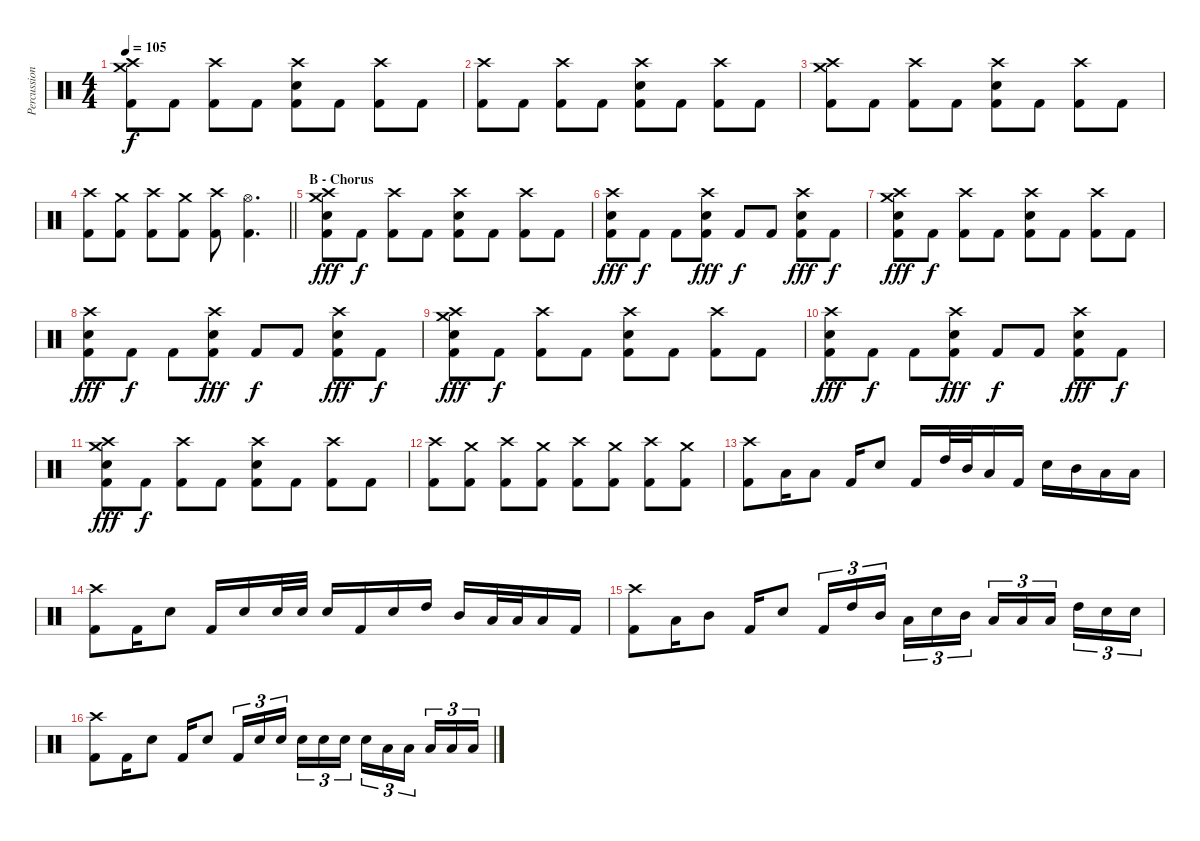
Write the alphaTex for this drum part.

\track ("Percussions" "Percussion") {instrument percussion}
\staff {score}
\articulation defaults
\ts (4 4)
\tempo 105
\clef neutral
\ks c
("Crash medium (hit)" "Crash high (hit)" "Kick (hit) 2").8{dy f} "Kick (hit) 2".8 ("Crash high (hit)" "Kick (hit) 2").8 "Kick (hit) 2".8 ("Crash high (hit)" "Snare (hit) 2" "Kick (hit) 2").8 "Kick (hit) 2".8 ("Crash high (hit)" "Kick (hit) 2").8 "Kick (hit) 2".8 |
("Crash high (hit)" "Kick (hit) 2").8 "Kick (hit) 2".8 ("Crash high (hit)" "Kick (hit) 2").8 "Kick (hit) 2".8 ("Crash high (hit)" "Snare (hit) 2" "Kick (hit) 2").8 "Kick (hit) 2".8 ("Crash high (hit)" "Kick (hit) 2").8 "Kick (hit) 2".8 |
("Crash medium (hit)" "Crash high (hit)" "Kick (hit) 2").8 "Kick (hit) 2".8 ("Crash high (hit)" "Kick (hit) 2").8 "Kick (hit) 2".8 ("Crash high (hit)" "Snare (hit) 2" "Kick (hit) 2").8 "Kick (hit) 2".8 ("Crash high (hit)" "Kick (hit) 2").8 "Kick (hit) 2".8 |
\barLineRight lightlight
("Crash high (hit)" "Kick (hit) 2").8 ("Crash medium (hit)" "Kick (hit) 2").8 ("Crash high (hit)" "Kick (hit) 2").8 ("Crash medium (hit)" "Kick (hit) 2").8 ("Crash high (hit)" "Kick (hit) 2").8 ("Hi-Hat (open)" "Kick (hit) 2").4{d} |
\section ("" "B - Chorus")
("Crash medium (hit)" "Crash high (hit)" "Snare (hit) 2" "Kick (hit) 2").8{dy fff} "Kick (hit) 2".8{dy f} ("Crash high (hit)" "Kick (hit) 2").8 "Kick (hit) 2".8 ("Crash high (hit)" "Snare (hit) 2" "Kick (hit) 2").8 "Kick (hit) 2".8 ("Crash high (hit)" "Kick (hit) 2").8 "Kick (hit) 2".8 |
("Crash high (hit)" "Snare (hit) 2" "Kick (hit) 2").8{dy fff} "Kick (hit) 2".8{dy f} "Kick (hit) 2".8 ("Crash high (hit)" "Snare (hit) 2" "Kick (hit) 2").8{dy fff} "Kick (hit) 2".8{dy f} "Kick (hit) 2".8 ("Crash high (hit)" "Snare (hit) 2" "Kick (hit) 2").8{dy fff} "Kick (hit) 2".8{dy f} |
("Crash medium (hit)" "Crash high (hit)" "Snare (hit) 2" "Kick (hit) 2").8{dy fff} "Kick (hit) 2".8{dy f} ("Crash high (hit)" "Kick (hit) 2").8 "Kick (hit) 2".8 ("Crash high (hit)" "Snare (hit) 2" "Kick (hit) 2").8 "Kick (hit) 2".8 ("Crash high (hit)" "Kick (hit) 2").8 "Kick (hit) 2".8 |
("Crash high (hit)" "Snare (hit) 2" "Kick (hit) 2").8{dy fff} "Kick (hit) 2".8{dy f} "Kick (hit) 2".8 ("Crash high (hit)" "Snare (hit) 2" "Kick (hit) 2").8{dy fff} "Kick (hit) 2".8{dy f} "Kick (hit) 2".8 ("Crash high (hit)" "Snare (hit) 2" "Kick (hit) 2").8{dy fff} "Kick (hit) 2".8{dy f} |
("Crash medium (hit)" "Crash high (hit)" "Snare (hit) 2" "Kick (hit) 2").8{dy fff} "Kick (hit) 2".8{dy f} ("Crash high (hit)" "Kick (hit) 2").8 "Kick (hit) 2".8 ("Crash high (hit)" "Snare (hit) 2" "Kick (hit) 2").8 "Kick (hit) 2".8 ("Crash high (hit)" "Kick (hit) 2").8 "Kick (hit) 2".8 |
("Crash high (hit)" "Snare (hit) 2" "Kick (hit) 2").8{dy fff} "Kick (hit) 2".8{dy f} "Kick (hit) 2".8 ("Crash high (hit)" "Snare (hit) 2" "Kick (hit) 2").8{dy fff} "Kick (hit) 2".8{dy f} "Kick (hit) 2".8 ("Crash high (hit)" "Snare (hit) 2" "Kick (hit) 2").8{dy fff} "Kick (hit) 2".8{dy f} |
("Crash medium (hit)" "Crash high (hit)" "Snare (hit) 2" "Kick (hit) 2").8{dy fff} "Kick (hit) 2".8{dy f} ("Crash high (hit)" "Kick (hit) 2").8 "Kick (hit) 2".8 ("Crash high (hit)" "Snare (hit) 2" "Kick (hit) 2").8 "Kick (hit) 2".8 ("Crash high (hit)" "Kick (hit) 2").8 "Kick (hit) 2".8 |
("Crash high (hit)" "Kick (hit) 2").8 ("Crash medium (hit)" "Kick (hit) 2").8 ("Crash high (hit)" "Kick (hit) 2").8 ("Crash medium (hit)" "Kick (hit) 2").8 ("Crash high (hit)" "Kick (hit) 2").8 ("Crash medium (hit)" "Kick (hit) 2").8 ("Crash high (hit)" "Kick (hit) 2").8 ("Crash medium (hit)" "Kick (hit) 2").8 |
("Crash high (hit)" "Kick (hit) 2").8 "Low Tom (hit)".16 "Low Floor Tom (hit)".8 "Kick (hit) 2".16 "Snare (hit) 2".8 "Kick (hit) 2".16 "High Tom (hit)".32 "Mid Tom (hit)".32 "Low Tom (hit)".16 "Kick (hit) 2".16 "Snare (hit) 2".16 "Mid Tom (hit)".16 "Low Tom (hit)".16 "Low Floor Tom (hit)".16 |
("Crash high (hit)" "Kick (hit) 2").8 "Kick (hit) 2".16 "Snare (hit) 2".8 "Kick (hit) 2".16 "Snare (hit) 2".16 "Snare (hit) 2".32 "Snare (hit) 2".32 "Snare (hit) 2".16 "Kick (hit) 2".16 "Snare (hit) 2".16 "High Tom (hit)".16 "Mid Tom (hit)".16 "Low Tom (hit)".32 "Low Floor Tom (hit)".32 "Low Floor Tom (hit)".16 "Kick (hit) 2".16 |
("Crash high (hit)" "Kick (hit) 2").8 "Low Floor Tom (hit)".16 "Mid Tom (hit)".8 "Kick (hit) 2".16 "Snare (hit) 2".8 "Kick (hit) 2".16{tu (3 2)} "High Tom (hit)".16{tu (3 2)} "Mid Tom (hit)".16{tu (3 2) beam splitsecondary} "Low Tom (hit)".16{tu (3 2)} "Snare (hit) 2".16{tu (3 2)} "Mid Tom (hit)".16{tu (3 2)} "Low Tom (hit)".16{tu (3 2)} "Low Floor Tom (hit)".16{tu (3 2)} "Low Tom (hit)".16{tu (3 2) beam splitsecondary} "High Tom (hit)".16{tu (3 2)} "Snare (hit) 2".16{tu (3 2)} "Snare (hit) 2".16{tu (3 2)} |
("Crash high (hit)" "Kick (hit) 2").8 "Kick (hit) 2".16 "Snare (hit) 2".8 "Kick (hit) 2".16 "Snare (hit) 2".8 "Kick (hit) 2".16{tu (3 2)} "Snare (hit) 2".16{tu (3 2)} "Snare (hit) 2".16{tu (3 2) beam splitsecondary} "Snare (hit) 2".16{tu (3 2)} "Snare (hit) 2".16{tu (3 2)} "Snare (hit) 2".16{tu (3 2)} "Snare (hit) 2".16{tu (3 2)} "Low Tom (hit)".16{tu (3 2)} "Low Tom (hit)".16{tu (3 2) beam splitsecondary} "Low Tom (hit)".16{tu (3 2)} "Low Floor Tom (hit)".16{tu (3 2)} "Low Floor Tom (hit)".16{tu (3 2)}
